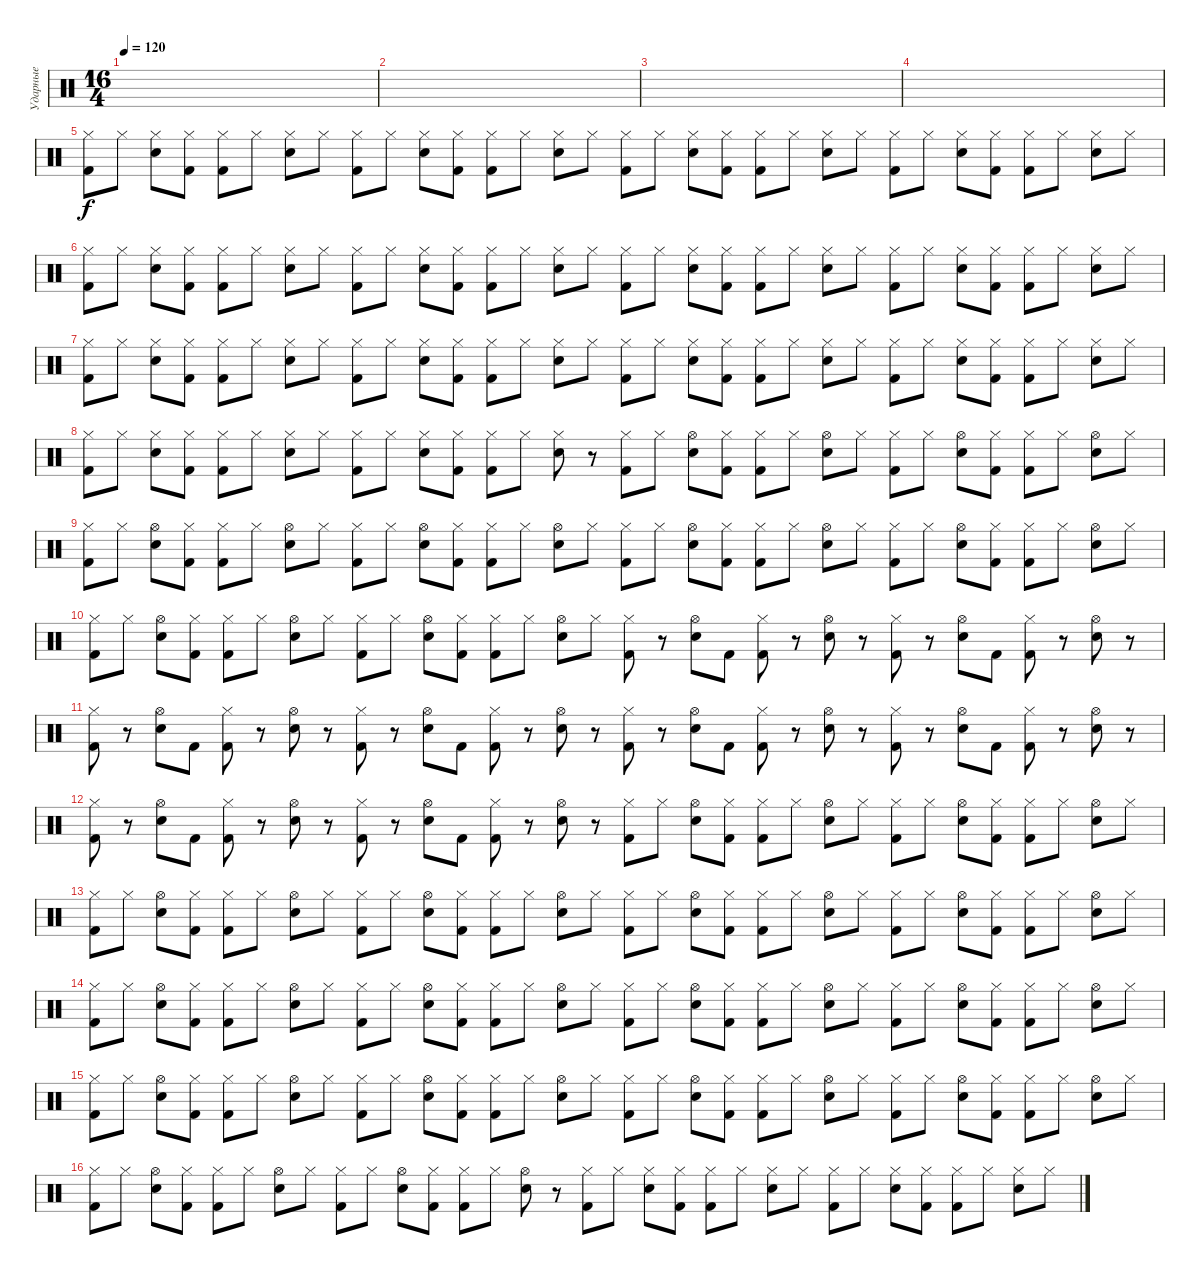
\track ("Ударные" "Ударные") {instrument percussion}
\staff {score}
\articulation defaults
\ts (16 4)
\tempo 120
\clef neutral
\ks c
|
|
|
|
("Hi-Hat (closed)" "Kick (hit) 2").8{volume 13} "Hi-Hat (closed)".8 ("Hi-Hat (closed)" "Electric Snare (hit)").8 ("Hi-Hat (closed)" "Kick (hit) 2").8 ("Hi-Hat (closed)" "Kick (hit) 2").8 "Hi-Hat (closed)".8 ("Hi-Hat (closed)" "Electric Snare (hit)").8 "Hi-Hat (closed)".8 ("Hi-Hat (closed)" "Kick (hit) 2").8 "Hi-Hat (closed)".8 ("Hi-Hat (closed)" "Electric Snare (hit)").8 ("Hi-Hat (closed)" "Kick (hit) 2").8 ("Hi-Hat (closed)" "Kick (hit) 2").8 "Hi-Hat (closed)".8 ("Hi-Hat (closed)" "Electric Snare (hit)").8 "Hi-Hat (closed)".8 ("Hi-Hat (closed)" "Kick (hit) 2").8 "Hi-Hat (closed)".8 ("Hi-Hat (closed)" "Electric Snare (hit)").8 ("Hi-Hat (closed)" "Kick (hit) 2").8 ("Hi-Hat (closed)" "Kick (hit) 2").8 "Hi-Hat (closed)".8 ("Hi-Hat (closed)" "Electric Snare (hit)").8 "Hi-Hat (closed)".8 ("Hi-Hat (closed)" "Kick (hit) 2").8 "Hi-Hat (closed)".8 ("Hi-Hat (closed)" "Electric Snare (hit)").8 ("Hi-Hat (closed)" "Kick (hit) 2").8 ("Hi-Hat (closed)" "Kick (hit) 2").8 "Hi-Hat (closed)".8 ("Hi-Hat (closed)" "Electric Snare (hit)").8 "Hi-Hat (closed)".8 |
("Hi-Hat (closed)" "Kick (hit) 2").8 "Hi-Hat (closed)".8 ("Hi-Hat (closed)" "Electric Snare (hit)").8 ("Hi-Hat (closed)" "Kick (hit) 2").8 ("Hi-Hat (closed)" "Kick (hit) 2").8 "Hi-Hat (closed)".8 ("Hi-Hat (closed)" "Electric Snare (hit)").8 "Hi-Hat (closed)".8 ("Hi-Hat (closed)" "Kick (hit) 2").8 "Hi-Hat (closed)".8 ("Hi-Hat (closed)" "Electric Snare (hit)").8 ("Hi-Hat (closed)" "Kick (hit) 2").8 ("Hi-Hat (closed)" "Kick (hit) 2").8 "Hi-Hat (closed)".8 ("Hi-Hat (closed)" "Electric Snare (hit)").8 "Hi-Hat (closed)".8 ("Hi-Hat (closed)" "Kick (hit) 2").8 "Hi-Hat (closed)".8 ("Hi-Hat (closed)" "Electric Snare (hit)").8 ("Hi-Hat (closed)" "Kick (hit) 2").8 ("Hi-Hat (closed)" "Kick (hit) 2").8 "Hi-Hat (closed)".8 ("Hi-Hat (closed)" "Electric Snare (hit)").8 "Hi-Hat (closed)".8 ("Hi-Hat (closed)" "Kick (hit) 2").8 "Hi-Hat (closed)".8 ("Hi-Hat (closed)" "Electric Snare (hit)").8 ("Hi-Hat (closed)" "Kick (hit) 2").8 ("Hi-Hat (closed)" "Kick (hit) 2").8 "Hi-Hat (closed)".8 ("Hi-Hat (closed)" "Electric Snare (hit)").8 "Hi-Hat (closed)".8 |
("Hi-Hat (closed)" "Kick (hit) 2").8 "Hi-Hat (closed)".8 ("Hi-Hat (closed)" "Electric Snare (hit)").8 ("Hi-Hat (closed)" "Kick (hit) 2").8 ("Hi-Hat (closed)" "Kick (hit) 2").8 "Hi-Hat (closed)".8 ("Hi-Hat (closed)" "Electric Snare (hit)").8 "Hi-Hat (closed)".8 ("Hi-Hat (closed)" "Kick (hit) 2").8 "Hi-Hat (closed)".8 ("Hi-Hat (closed)" "Electric Snare (hit)").8 ("Hi-Hat (closed)" "Kick (hit) 2").8 ("Hi-Hat (closed)" "Kick (hit) 2").8 "Hi-Hat (closed)".8 ("Hi-Hat (closed)" "Electric Snare (hit)").8 "Hi-Hat (closed)".8 ("Hi-Hat (closed)" "Kick (hit) 2").8 "Hi-Hat (closed)".8 ("Hi-Hat (closed)" "Electric Snare (hit)").8 ("Hi-Hat (closed)" "Kick (hit) 2").8 ("Hi-Hat (closed)" "Kick (hit) 2").8 "Hi-Hat (closed)".8 ("Hi-Hat (closed)" "Electric Snare (hit)").8 "Hi-Hat (closed)".8 ("Hi-Hat (closed)" "Kick (hit) 2").8 "Hi-Hat (closed)".8 ("Hi-Hat (closed)" "Electric Snare (hit)").8 ("Hi-Hat (closed)" "Kick (hit) 2").8 ("Hi-Hat (closed)" "Kick (hit) 2").8 "Hi-Hat (closed)".8 ("Hi-Hat (closed)" "Electric Snare (hit)").8 "Hi-Hat (closed)".8 |
("Hi-Hat (closed)" "Kick (hit) 2").8 "Hi-Hat (closed)".8 ("Hi-Hat (closed)" "Electric Snare (hit)").8 ("Hi-Hat (closed)" "Kick (hit) 2").8 ("Hi-Hat (closed)" "Kick (hit) 2").8 "Hi-Hat (closed)".8 ("Hi-Hat (closed)" "Electric Snare (hit)").8 "Hi-Hat (closed)".8 ("Hi-Hat (closed)" "Kick (hit) 2").8 "Hi-Hat (closed)".8 ("Hi-Hat (closed)" "Electric Snare (hit)").8 ("Hi-Hat (closed)" "Kick (hit) 2").8 ("Hi-Hat (closed)" "Kick (hit) 2").8 "Hi-Hat (closed)".8 ("Hi-Hat (closed)" "Electric Snare (hit)").8 r.8 ("Hi-Hat (closed)" "Kick (hit) 2").8 "Hi-Hat (closed)".8 ("Hi-Hat (open)" "Electric Snare (hit)").8 ("Hi-Hat (closed)" "Kick (hit) 2").8 ("Hi-Hat (closed)" "Kick (hit) 2").8 "Hi-Hat (closed)".8 ("Hi-Hat (open)" "Electric Snare (hit)").8 "Hi-Hat (closed)".8 ("Hi-Hat (closed)" "Kick (hit) 2").8 "Hi-Hat (closed)".8 ("Hi-Hat (open)" "Electric Snare (hit)").8 ("Hi-Hat (closed)" "Kick (hit) 2").8 ("Hi-Hat (closed)" "Kick (hit) 2").8 "Hi-Hat (closed)".8 ("Hi-Hat (open)" "Electric Snare (hit)").8 "Hi-Hat (closed)".8 |
("Hi-Hat (closed)" "Kick (hit) 2").8 "Hi-Hat (closed)".8 ("Hi-Hat (open)" "Electric Snare (hit)").8 ("Hi-Hat (closed)" "Kick (hit) 2").8 ("Hi-Hat (closed)" "Kick (hit) 2").8 "Hi-Hat (closed)".8 ("Hi-Hat (open)" "Electric Snare (hit)").8 "Hi-Hat (closed)".8 ("Hi-Hat (closed)" "Kick (hit) 2").8 "Hi-Hat (closed)".8 ("Hi-Hat (open)" "Electric Snare (hit)").8 ("Hi-Hat (closed)" "Kick (hit) 2").8 ("Hi-Hat (closed)" "Kick (hit) 2").8 "Hi-Hat (closed)".8 ("Hi-Hat (open)" "Electric Snare (hit)").8 "Hi-Hat (closed)".8 ("Hi-Hat (closed)" "Kick (hit) 2").8 "Hi-Hat (closed)".8 ("Hi-Hat (open)" "Electric Snare (hit)").8 ("Hi-Hat (closed)" "Kick (hit) 2").8 ("Hi-Hat (closed)" "Kick (hit) 2").8 "Hi-Hat (closed)".8 ("Hi-Hat (open)" "Electric Snare (hit)").8 "Hi-Hat (closed)".8 ("Hi-Hat (closed)" "Kick (hit) 2").8 "Hi-Hat (closed)".8 ("Hi-Hat (open)" "Electric Snare (hit)").8 ("Hi-Hat (closed)" "Kick (hit) 2").8 ("Hi-Hat (closed)" "Kick (hit) 2").8 "Hi-Hat (closed)".8 ("Hi-Hat (open)" "Electric Snare (hit)").8 "Hi-Hat (closed)".8 |
("Hi-Hat (closed)" "Kick (hit) 2").8 "Hi-Hat (closed)".8 ("Hi-Hat (open)" "Electric Snare (hit)").8 ("Hi-Hat (closed)" "Kick (hit) 2").8 ("Hi-Hat (closed)" "Kick (hit) 2").8 "Hi-Hat (closed)".8 ("Hi-Hat (open)" "Electric Snare (hit)").8 "Hi-Hat (closed)".8 ("Hi-Hat (closed)" "Kick (hit) 2").8 "Hi-Hat (closed)".8 ("Hi-Hat (open)" "Electric Snare (hit)").8 ("Hi-Hat (closed)" "Kick (hit) 2").8 ("Hi-Hat (closed)" "Kick (hit) 2").8 "Hi-Hat (closed)".8 ("Hi-Hat (open)" "Electric Snare (hit)").8 "Hi-Hat (closed)".8 ("Hi-Hat (closed)" "Kick (hit) 2").8 r.8 ("Hi-Hat (open)" "Electric Snare (hit)").8 "Kick (hit) 2".8 ("Hi-Hat (closed)" "Kick (hit) 2").8 r.8 ("Hi-Hat (open)" "Electric Snare (hit)").8 r.8 ("Hi-Hat (closed)" "Kick (hit) 2").8 r.8 ("Hi-Hat (open)" "Electric Snare (hit)").8 "Kick (hit) 2".8 ("Hi-Hat (closed)" "Kick (hit) 2").8 r.8 ("Hi-Hat (open)" "Electric Snare (hit)").8 r.8 |
("Hi-Hat (closed)" "Kick (hit) 2").8 r.8 ("Hi-Hat (open)" "Electric Snare (hit)").8 "Kick (hit) 2".8 ("Hi-Hat (closed)" "Kick (hit) 2").8 r.8 ("Hi-Hat (open)" "Electric Snare (hit)").8 r.8 ("Hi-Hat (closed)" "Kick (hit) 2").8 r.8 ("Hi-Hat (open)" "Electric Snare (hit)").8 "Kick (hit) 2".8 ("Hi-Hat (closed)" "Kick (hit) 2").8 r.8 ("Hi-Hat (open)" "Electric Snare (hit)").8 r.8 ("Hi-Hat (closed)" "Kick (hit) 2").8 r.8 ("Hi-Hat (open)" "Electric Snare (hit)").8 "Kick (hit) 2".8 ("Hi-Hat (closed)" "Kick (hit) 2").8 r.8 ("Hi-Hat (open)" "Electric Snare (hit)").8 r.8 ("Hi-Hat (closed)" "Kick (hit) 2").8 r.8 ("Hi-Hat (open)" "Electric Snare (hit)").8 "Kick (hit) 2".8 ("Hi-Hat (closed)" "Kick (hit) 2").8 r.8 ("Hi-Hat (open)" "Electric Snare (hit)").8 r.8 |
("Hi-Hat (closed)" "Kick (hit) 2").8 r.8 ("Hi-Hat (open)" "Electric Snare (hit)").8 "Kick (hit) 2".8 ("Hi-Hat (closed)" "Kick (hit) 2").8 r.8 ("Hi-Hat (open)" "Electric Snare (hit)").8 r.8 ("Hi-Hat (closed)" "Kick (hit) 2").8 r.8 ("Hi-Hat (open)" "Electric Snare (hit)").8 "Kick (hit) 2".8 ("Hi-Hat (closed)" "Kick (hit) 2").8 r.8 ("Hi-Hat (open)" "Electric Snare (hit)").8 r.8 ("Hi-Hat (closed)" "Kick (hit) 2").8 "Hi-Hat (closed)".8 ("Hi-Hat (open)" "Electric Snare (hit)").8 ("Hi-Hat (closed)" "Kick (hit) 2").8 ("Hi-Hat (closed)" "Kick (hit) 2").8 "Hi-Hat (closed)".8 ("Hi-Hat (open)" "Electric Snare (hit)").8 "Hi-Hat (closed)".8 ("Hi-Hat (closed)" "Kick (hit) 2").8 "Hi-Hat (closed)".8 ("Hi-Hat (open)" "Electric Snare (hit)").8 ("Hi-Hat (closed)" "Kick (hit) 2").8 ("Hi-Hat (closed)" "Kick (hit) 2").8 "Hi-Hat (closed)".8 ("Hi-Hat (open)" "Electric Snare (hit)").8 "Hi-Hat (closed)".8 |
("Hi-Hat (closed)" "Kick (hit) 2").8 "Hi-Hat (closed)".8 ("Hi-Hat (open)" "Electric Snare (hit)").8 ("Hi-Hat (closed)" "Kick (hit) 2").8 ("Hi-Hat (closed)" "Kick (hit) 2").8 "Hi-Hat (closed)".8 ("Hi-Hat (open)" "Electric Snare (hit)").8 "Hi-Hat (closed)".8 ("Hi-Hat (closed)" "Kick (hit) 2").8 "Hi-Hat (closed)".8 ("Hi-Hat (open)" "Electric Snare (hit)").8 ("Hi-Hat (closed)" "Kick (hit) 2").8 ("Hi-Hat (closed)" "Kick (hit) 2").8 "Hi-Hat (closed)".8 ("Hi-Hat (open)" "Electric Snare (hit)").8 "Hi-Hat (closed)".8 ("Hi-Hat (closed)" "Kick (hit) 2").8 "Hi-Hat (closed)".8 ("Hi-Hat (open)" "Electric Snare (hit)").8 ("Hi-Hat (closed)" "Kick (hit) 2").8 ("Hi-Hat (closed)" "Kick (hit) 2").8 "Hi-Hat (closed)".8 ("Hi-Hat (open)" "Electric Snare (hit)").8 "Hi-Hat (closed)".8 ("Hi-Hat (closed)" "Kick (hit) 2").8 "Hi-Hat (closed)".8 ("Hi-Hat (open)" "Electric Snare (hit)").8 ("Hi-Hat (closed)" "Kick (hit) 2").8 ("Hi-Hat (closed)" "Kick (hit) 2").8 "Hi-Hat (closed)".8 ("Hi-Hat (open)" "Electric Snare (hit)").8 "Hi-Hat (closed)".8 |
("Hi-Hat (closed)" "Kick (hit) 2").8 "Hi-Hat (closed)".8 ("Hi-Hat (open)" "Electric Snare (hit)").8 ("Hi-Hat (closed)" "Kick (hit) 2").8 ("Hi-Hat (closed)" "Kick (hit) 2").8 "Hi-Hat (closed)".8 ("Hi-Hat (open)" "Electric Snare (hit)").8 "Hi-Hat (closed)".8 ("Hi-Hat (closed)" "Kick (hit) 2").8 "Hi-Hat (closed)".8 ("Hi-Hat (open)" "Electric Snare (hit)").8 ("Hi-Hat (closed)" "Kick (hit) 2").8 ("Hi-Hat (closed)" "Kick (hit) 2").8 "Hi-Hat (closed)".8 ("Hi-Hat (open)" "Electric Snare (hit)").8 "Hi-Hat (closed)".8 ("Hi-Hat (closed)" "Kick (hit) 2").8 "Hi-Hat (closed)".8 ("Hi-Hat (open)" "Electric Snare (hit)").8 ("Hi-Hat (closed)" "Kick (hit) 2").8 ("Hi-Hat (closed)" "Kick (hit) 2").8 "Hi-Hat (closed)".8 ("Hi-Hat (open)" "Electric Snare (hit)").8 "Hi-Hat (closed)".8 ("Hi-Hat (closed)" "Kick (hit) 2").8 "Hi-Hat (closed)".8 ("Hi-Hat (open)" "Electric Snare (hit)").8 ("Hi-Hat (closed)" "Kick (hit) 2").8 ("Hi-Hat (closed)" "Kick (hit) 2").8 "Hi-Hat (closed)".8 ("Hi-Hat (open)" "Electric Snare (hit)").8 "Hi-Hat (closed)".8 |
("Hi-Hat (closed)" "Kick (hit) 2").8 "Hi-Hat (closed)".8 ("Hi-Hat (open)" "Electric Snare (hit)").8 ("Hi-Hat (closed)" "Kick (hit) 2").8 ("Hi-Hat (closed)" "Kick (hit) 2").8 "Hi-Hat (closed)".8 ("Hi-Hat (open)" "Electric Snare (hit)").8 "Hi-Hat (closed)".8 ("Hi-Hat (closed)" "Kick (hit) 2").8 "Hi-Hat (closed)".8 ("Hi-Hat (open)" "Electric Snare (hit)").8 ("Hi-Hat (closed)" "Kick (hit) 2").8 ("Hi-Hat (closed)" "Kick (hit) 2").8 "Hi-Hat (closed)".8 ("Hi-Hat (open)" "Electric Snare (hit)").8 "Hi-Hat (closed)".8 ("Hi-Hat (closed)" "Kick (hit) 2").8 "Hi-Hat (closed)".8 ("Hi-Hat (open)" "Electric Snare (hit)").8 ("Hi-Hat (closed)" "Kick (hit) 2").8 ("Hi-Hat (closed)" "Kick (hit) 2").8 "Hi-Hat (closed)".8 ("Hi-Hat (open)" "Electric Snare (hit)").8 "Hi-Hat (closed)".8 ("Hi-Hat (closed)" "Kick (hit) 2").8 "Hi-Hat (closed)".8 ("Hi-Hat (open)" "Electric Snare (hit)").8 ("Hi-Hat (closed)" "Kick (hit) 2").8 ("Hi-Hat (closed)" "Kick (hit) 2").8 "Hi-Hat (closed)".8 ("Hi-Hat (open)" "Electric Snare (hit)").8 "Hi-Hat (closed)".8 |
("Hi-Hat (closed)" "Kick (hit) 2").8 "Hi-Hat (closed)".8 ("Hi-Hat (open)" "Electric Snare (hit)").8 ("Hi-Hat (closed)" "Kick (hit) 2").8 ("Hi-Hat (closed)" "Kick (hit) 2").8 "Hi-Hat (closed)".8 ("Hi-Hat (open)" "Electric Snare (hit)").8 "Hi-Hat (closed)".8 ("Hi-Hat (closed)" "Kick (hit) 2").8 "Hi-Hat (closed)".8 ("Hi-Hat (open)" "Electric Snare (hit)").8 ("Hi-Hat (closed)" "Kick (hit) 2").8 ("Hi-Hat (closed)" "Kick (hit) 2").8 "Hi-Hat (closed)".8 ("Hi-Hat (open)" "Electric Snare (hit)").8 r.8 ("Hi-Hat (closed)" "Kick (hit) 2").8 "Hi-Hat (closed)".8 ("Hi-Hat (closed)" "Electric Snare (hit)").8 ("Hi-Hat (closed)" "Kick (hit) 2").8 ("Hi-Hat (closed)" "Kick (hit) 2").8 "Hi-Hat (closed)".8 ("Hi-Hat (closed)" "Electric Snare (hit)").8 "Hi-Hat (closed)".8 ("Hi-Hat (closed)" "Kick (hit) 2").8 "Hi-Hat (closed)".8 ("Hi-Hat (closed)" "Electric Snare (hit)").8 ("Hi-Hat (closed)" "Kick (hit) 2").8 ("Hi-Hat (closed)" "Kick (hit) 2").8 "Hi-Hat (closed)".8 ("Hi-Hat (closed)" "Electric Snare (hit)").8 "Hi-Hat (closed)".8
